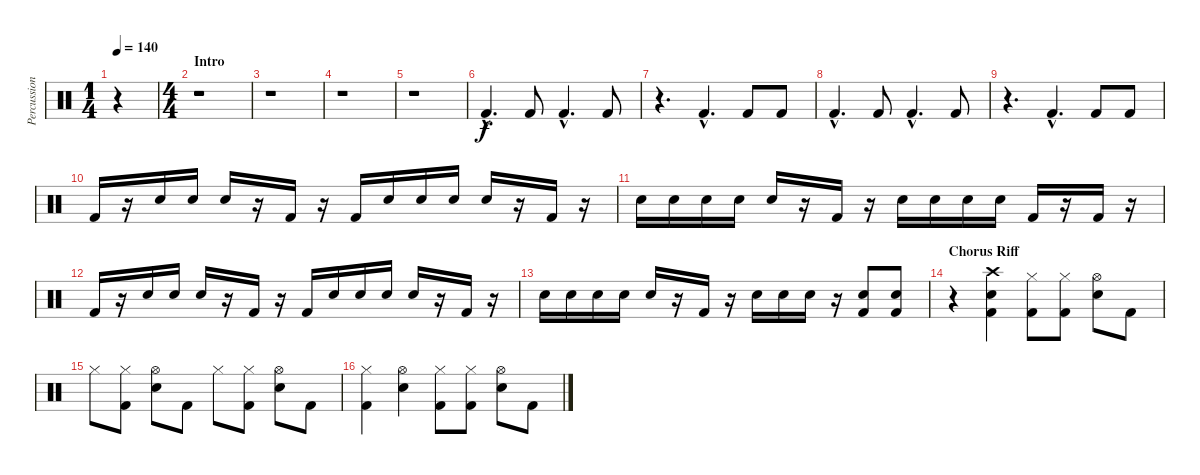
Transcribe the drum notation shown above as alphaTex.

\track ("Percussion" "Percussion") {instrument percussion}
\staff {score}
\articulation defaults
\ts (1 4)
\tempo 140
\clef neutral
\ks c
r.4{dy f} |
\ts (4 4)
\section ("" "Intro")
r.1 |
r.1 |
r.1 |
r.1 |
"Kick (hit) 2"{hac}.4{d} "Kick (hit) 2".8 "Kick (hit) 2"{hac}.4{d} "Kick (hit) 2".8 |
r.4{d} "Kick (hit) 2"{hac}.4{d} "Kick (hit) 2".8 "Kick (hit) 2".8 |
"Kick (hit) 2"{hac}.4{d} "Kick (hit) 2".8 "Kick (hit) 2"{hac}.4{d} "Kick (hit) 2".8 |
r.4{d} "Kick (hit) 2"{hac}.4{d} "Kick (hit) 2".8 "Kick (hit) 2".8 |
"Kick (hit) 2".16 r.16 "Electric Snare (hit)".16 "Electric Snare (hit)".16 "Electric Snare (hit)".16 r.16 "Kick (hit) 2".16 r.16 "Kick (hit) 2".16 "Electric Snare (hit)".16 "Electric Snare (hit)".16 "Electric Snare (hit)".16 "Electric Snare (hit)".16 r.16 "Kick (hit) 2".16 r.16 |
"Electric Snare (hit)".16 "Electric Snare (hit)".16 "Electric Snare (hit)".16 "Electric Snare (hit)".16 "Electric Snare (hit)".16 r.16 "Kick (hit) 2".16 r.16 "Electric Snare (hit)".16 "Electric Snare (hit)".16 "Electric Snare (hit)".16 "Electric Snare (hit)".16 "Kick (hit) 2".16 r.16 "Kick (hit) 2".16 r.16 |
"Kick (hit) 2".16 r.16 "Electric Snare (hit)".16 "Electric Snare (hit)".16 "Electric Snare (hit)".16 r.16 "Kick (hit) 2".16 r.16 "Kick (hit) 2".16 "Electric Snare (hit)".16 "Electric Snare (hit)".16 "Electric Snare (hit)".16 "Electric Snare (hit)".16 r.16 "Kick (hit) 2".16 r.16 |
"Electric Snare (hit)".16 "Electric Snare (hit)".16 "Electric Snare (hit)".16 "Electric Snare (hit)".16 "Electric Snare (hit)".16 r.16 "Kick (hit) 2".16 r.16 "Electric Snare (hit)".16 "Electric Snare (hit)".16 "Electric Snare (hit)".16 r.16 ("Electric Snare (hit)" "Kick (hit) 2").8 ("Electric Snare (hit)" "Kick (hit) 2").8 |
\section ("" "Chorus Riff")
r.4 ("Crash high (hit)" "Electric Snare (hit)" "Kick (hit) 2").4 ("Hi-Hat (closed)" "Kick (hit) 2").8 ("Hi-Hat (closed)" "Kick (hit) 2").8 ("Hi-Hat (open)" "Electric Snare (hit)").8 "Kick (hit) 2".8 |
"Hi-Hat (closed)".8 ("Hi-Hat (closed)" "Kick (hit) 2").8 ("Hi-Hat (open)" "Electric Snare (hit)").8 "Kick (hit) 2".8 "Hi-Hat (closed)".8 ("Hi-Hat (closed)" "Kick (hit) 2").8 ("Hi-Hat (open)" "Electric Snare (hit)").8 "Kick (hit) 2".8 |
("Hi-Hat (closed)" "Kick (hit) 2").4 ("Hi-Hat (open)" "Electric Snare (hit)").4 ("Hi-Hat (closed)" "Kick (hit) 2").8 ("Hi-Hat (closed)" "Kick (hit) 2").8 ("Hi-Hat (open)" "Electric Snare (hit)").8 "Kick (hit) 2".8
